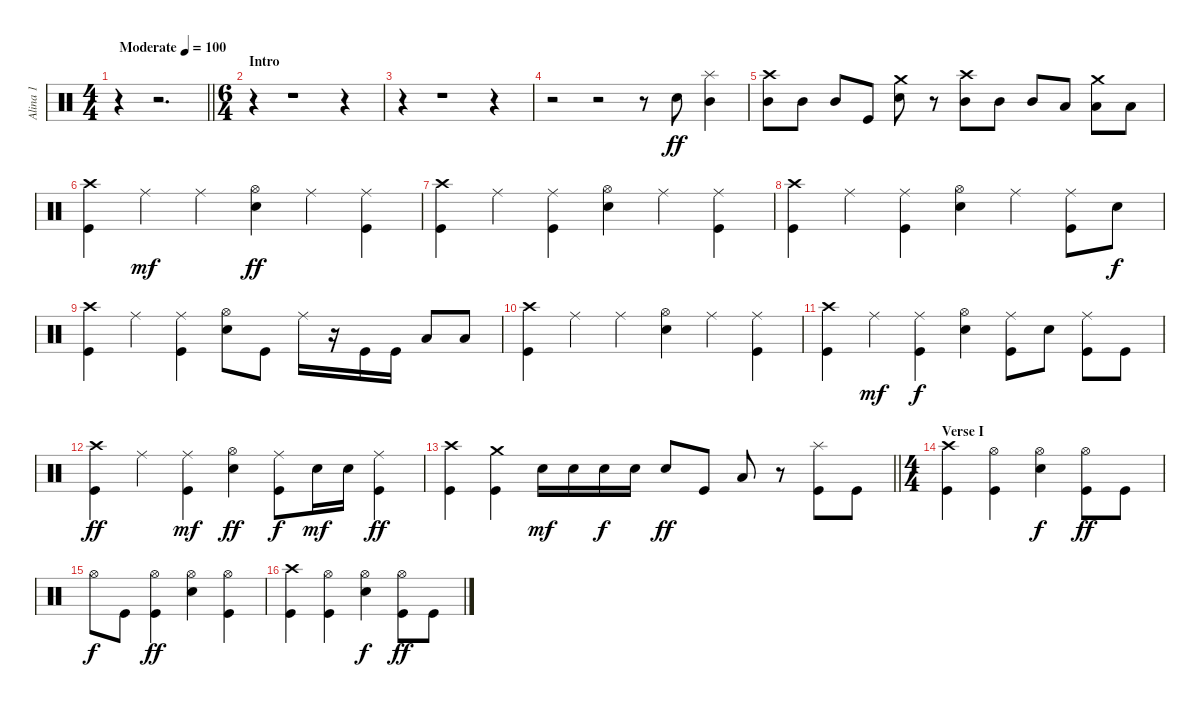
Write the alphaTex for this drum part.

\track ("Alina 1" "Alina 1") {mute instrument percussion}
\staff {score}
\articulation defaults
\ts (4 4)
\tempo (100 "Moderate")
\clef neutral
\barLineRight lightlight
\ks c
r.4{dy ff} r.2{d} |
\ts (6 4)
\section ("" "Intro")
r.4 r.1 r.4 |
r.4 r.1 r.4 |
r.2 r.2 r.8 "Snare (hit) 2".8 ("Mid Tom (hit)" "Splash (hit)").4 |
("Mid Tom (hit)" "Crash high (hit)").8 "Mid Tom (hit)".8 "Mid Tom (hit)".8 "Kick (hit)".8 ("Snare (hit) 2" "Crash medium (hit)").8 r.8 ("Mid Tom (hit)" "Crash high (hit)").8 "Mid Tom (hit)".8 "Mid Tom (hit)".8 "Low Floor Tom (hit)".8 ("Low Tom (hit)" "Crash medium (hit)").8 "Low Tom (hit)".8 |
("Crash high (hit)" "Kick (hit)").4 "Ride (middle)".4{dy mf} "Ride (middle)".4 ("Hi-Hat (open)" "Snare (hit) 2").4{dy ff} "Ride (middle)".4 ("Kick (hit)" "Ride (middle)").4 |
("Crash high (hit)" "Kick (hit)").4 "Ride (middle)".4 ("Kick (hit)" "Ride (middle)").4 ("Hi-Hat (open)" "Snare (hit) 2").4 "Ride (middle)".4 ("Kick (hit)" "Ride (middle)").4 |
("Crash high (hit)" "Kick (hit)").4 "Ride (middle)".4 ("Kick (hit)" "Ride (middle)").4 ("Hi-Hat (open)" "Snare (hit) 2").4 "Ride (middle)".4 ("Kick (hit)" "Ride (middle)").8 "Snare (hit) 2".8{dy f} |
("Crash high (hit)" "Kick (hit)").4 "Ride (middle)".4 ("Kick (hit)" "Ride (middle)").4 ("Hi-Hat (open)" "Snare (hit) 2").8 "Kick (hit)".8 "Ride (middle)".16 r.16 "Kick (hit)".16 "Kick (hit)".16 "Low Tom (hit)".8 "Low Tom (hit)".8 |
("Crash high (hit)" "Kick (hit)").4 "Ride (middle)".4 "Ride (middle)".4 ("Hi-Hat (open)" "Snare (hit) 2").4 "Ride (middle)".4 ("Kick (hit)" "Ride (middle)").4 |
("Crash high (hit)" "Kick (hit)").4 "Ride (middle)".4{dy mf} ("Kick (hit)" "Ride (middle)").4{dy f} ("Hi-Hat (open)" "Snare (hit) 2").4 ("Kick (hit)" "Ride (middle)").8 "Snare (hit) 2".8 ("Kick (hit)" "Ride (middle)").8 "Kick (hit)".8 |
("Crash high (hit)" "Kick (hit)").4{dy ff} "Ride (middle)".4 ("Kick (hit)" "Ride (middle)").4{dy mf} ("Hi-Hat (open)" "Snare (hit) 2").4{dy ff} ("Kick (hit)" "Ride (middle)").8{dy f} "Snare (hit) 2".16{dy mf} "Snare (hit) 2".16 ("Kick (hit)" "Ride (middle)").4{dy ff} |
\barLineRight lightlight
("Crash high (hit)" "Kick (hit)").4 ("Kick (hit)" "Crash medium (hit)").4 "Snare (hit) 2".16{dy mf} "Snare (hit) 2".16 "Snare (hit) 2".16{dy f} "Snare (hit) 2".16 "Snare (hit) 2".8{dy ff} "Kick (hit)".8 "Low Tom (hit)".8 r.8 ("Kick (hit)" "Splash (hit)").8 "Kick (hit)".8 |
\ts (4 4)
\section ("" "Verse I")
("Crash high (hit)" "Kick (hit)").4 ("Hi-Hat (open)" "Kick (hit)").4 ("Snare (hit) 2" "Hi-Hat (open)").4{dy f} ("Hi-Hat (open)" "Kick (hit)").8{dy ff} "Kick (hit)".8 |
"Hi-Hat (open)".8{dy f} "Kick (hit)".8 ("Hi-Hat (open)" "Kick (hit)").4{dy ff} ("Hi-Hat (open)" "Snare (hit) 2").4 ("Hi-Hat (open)" "Kick (hit)").4 |
("Crash high (hit)" "Kick (hit)").4 ("Hi-Hat (open)" "Kick (hit)").4 ("Snare (hit) 2" "Hi-Hat (open)").4{dy f} ("Hi-Hat (open)" "Kick (hit)").8{dy ff} "Kick (hit)".8
